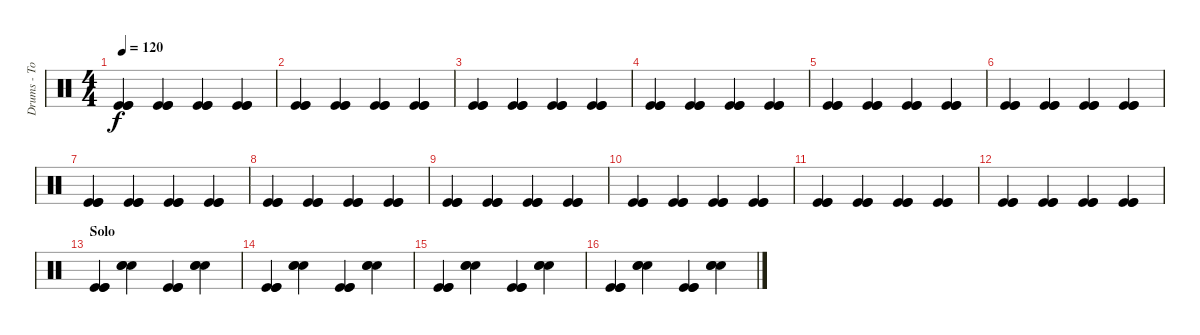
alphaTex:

\track ("Drums - Tom" "Drums - To") {instrument percussion}
\staff {score}
\articulation defaults
\ts (4 4)
\tempo 120
\clef neutral
\ks c
("Kick (hit)" "Kick (hit)" "Kick (hit)").4{dy f} ("Kick (hit)" "Kick (hit)" "Kick (hit)").4 ("Kick (hit)" "Kick (hit)" "Kick (hit)").4 ("Kick (hit)" "Kick (hit)" "Kick (hit)").4 |
("Kick (hit)" "Kick (hit)" "Kick (hit)").4 ("Kick (hit)" "Kick (hit)" "Kick (hit)").4 ("Kick (hit)" "Kick (hit)" "Kick (hit)").4 ("Kick (hit)" "Kick (hit)" "Kick (hit)").4 |
("Kick (hit)" "Kick (hit)" "Kick (hit)").4 ("Kick (hit)" "Kick (hit)" "Kick (hit)").4 ("Kick (hit)" "Kick (hit)" "Kick (hit)").4 ("Kick (hit)" "Kick (hit)" "Kick (hit)").4 |
("Kick (hit)" "Kick (hit)" "Kick (hit)").4 ("Kick (hit)" "Kick (hit)" "Kick (hit)").4 ("Kick (hit)" "Kick (hit)" "Kick (hit)").4 ("Kick (hit)" "Kick (hit)" "Kick (hit)").4 |
("Kick (hit)" "Kick (hit)" "Kick (hit)").4 ("Kick (hit)" "Kick (hit)" "Kick (hit)").4 ("Kick (hit)" "Kick (hit)" "Kick (hit)").4 ("Kick (hit)" "Kick (hit)" "Kick (hit)").4 |
("Kick (hit)" "Kick (hit)" "Kick (hit)").4 ("Kick (hit)" "Kick (hit)" "Kick (hit)").4 ("Kick (hit)" "Kick (hit)" "Kick (hit)").4 ("Kick (hit)" "Kick (hit)" "Kick (hit)").4 |
("Kick (hit)" "Kick (hit)" "Kick (hit)").4 ("Kick (hit)" "Kick (hit)" "Kick (hit)").4 ("Kick (hit)" "Kick (hit)" "Kick (hit)").4 ("Kick (hit)" "Kick (hit)" "Kick (hit)").4 |
("Kick (hit)" "Kick (hit)" "Kick (hit)").4 ("Kick (hit)" "Kick (hit)" "Kick (hit)").4 ("Kick (hit)" "Kick (hit)" "Kick (hit)").4 ("Kick (hit)" "Kick (hit)" "Kick (hit)").4 |
("Kick (hit)" "Kick (hit)" "Kick (hit)").4 ("Kick (hit)" "Kick (hit)" "Kick (hit)").4 ("Kick (hit)" "Kick (hit)" "Kick (hit)").4 ("Kick (hit)" "Kick (hit)" "Kick (hit)").4 |
("Kick (hit)" "Kick (hit)" "Kick (hit)").4 ("Kick (hit)" "Kick (hit)" "Kick (hit)").4 ("Kick (hit)" "Kick (hit)" "Kick (hit)").4 ("Kick (hit)" "Kick (hit)" "Kick (hit)").4 |
("Kick (hit)" "Kick (hit)" "Kick (hit)").4 ("Kick (hit)" "Kick (hit)" "Kick (hit)").4 ("Kick (hit)" "Kick (hit)" "Kick (hit)").4 ("Kick (hit)" "Kick (hit)" "Kick (hit)").4 |
("Kick (hit)" "Kick (hit)" "Kick (hit)").4 ("Kick (hit)" "Kick (hit)" "Kick (hit)").4 ("Kick (hit)" "Kick (hit)" "Kick (hit)").4 ("Kick (hit)" "Kick (hit)" "Kick (hit)").4 |
\section ("" "Solo")
("Kick (hit)" "Kick (hit)" "Kick (hit)").4 ("Snare (hit) 2" "Snare (hit) 2" "Snare (hit) 2").4 ("Kick (hit)" "Kick (hit)" "Kick (hit)").4 ("Snare (hit) 2" "Snare (hit) 2" "Snare (hit) 2").4 |
("Kick (hit)" "Kick (hit)" "Kick (hit)").4 ("Snare (hit) 2" "Snare (hit) 2" "Snare (hit) 2").4 ("Kick (hit)" "Kick (hit)" "Kick (hit)").4 ("Snare (hit) 2" "Snare (hit) 2" "Snare (hit) 2").4 |
("Kick (hit)" "Kick (hit)" "Kick (hit)").4 ("Snare (hit) 2" "Snare (hit) 2" "Snare (hit) 2").4 ("Kick (hit)" "Kick (hit)" "Kick (hit)").4 ("Snare (hit) 2" "Snare (hit) 2" "Snare (hit) 2").4 |
("Kick (hit)" "Kick (hit)" "Kick (hit)").4 ("Snare (hit) 2" "Snare (hit) 2" "Snare (hit) 2").4 ("Kick (hit)" "Kick (hit)" "Kick (hit)").4 ("Snare (hit) 2" "Snare (hit) 2" "Snare (hit) 2").4
